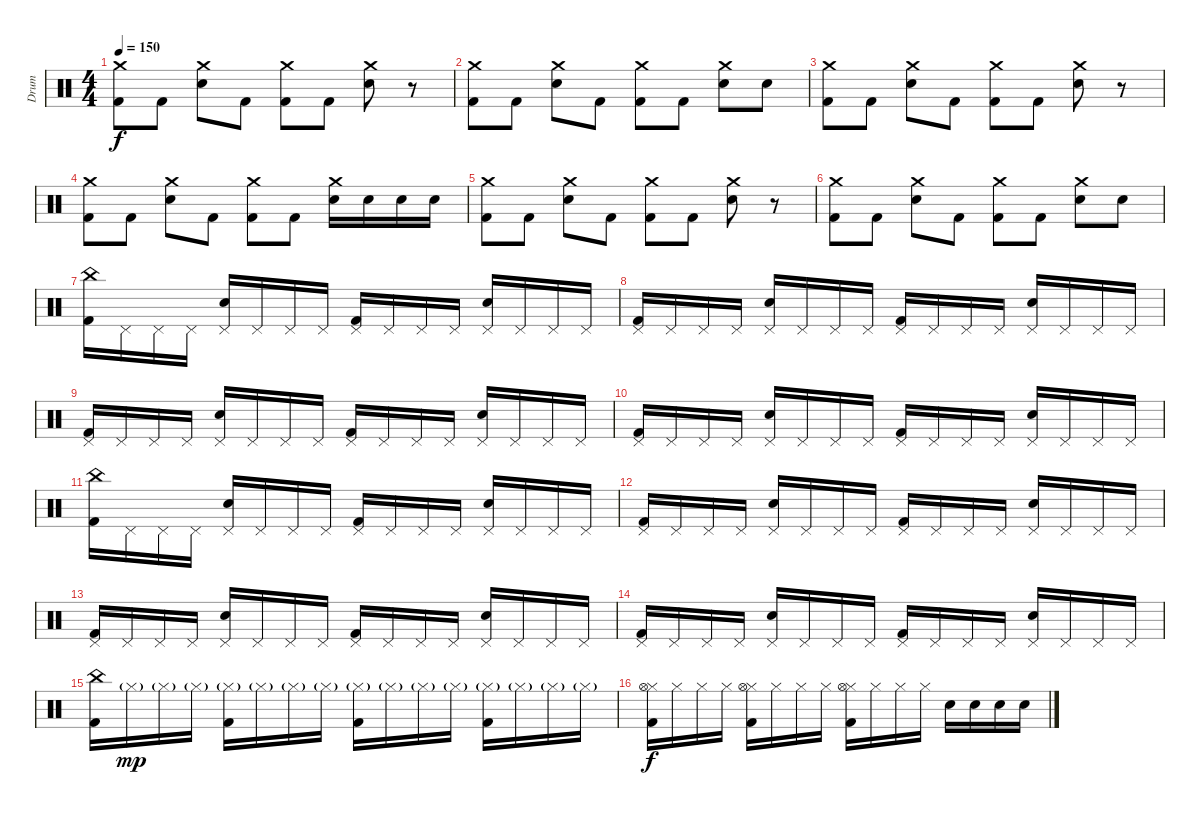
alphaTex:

\track ("Drum" "Drum") {instrument percussion}
\staff {score}
\articulation defaults
\ts (4 4)
\tempo 150
\clef neutral
\ks c
("Crash medium (hit)" "Kick (hit) 2").8{dy f} "Kick (hit) 2".8 ("Crash medium (hit)" "Electric Snare (hit)").8 "Kick (hit) 2".8 ("Crash medium (hit)" "Kick (hit) 2").8 "Kick (hit) 2".8 ("Crash medium (hit)" "Electric Snare (hit)").8 r.8 |
("Crash medium (hit)" "Kick (hit) 2").8 "Kick (hit) 2".8 ("Crash medium (hit)" "Electric Snare (hit)").8 "Kick (hit) 2".8 ("Crash medium (hit)" "Kick (hit) 2").8 "Kick (hit) 2".8 ("Crash medium (hit)" "Electric Snare (hit)").8 "Electric Snare (hit)".8 |
("Crash medium (hit)" "Kick (hit) 2").8 "Kick (hit) 2".8 ("Crash medium (hit)" "Electric Snare (hit)").8 "Kick (hit) 2".8 ("Crash medium (hit)" "Kick (hit) 2").8 "Kick (hit) 2".8 ("Crash medium (hit)" "Electric Snare (hit)").8 r.8 |
("Crash medium (hit)" "Kick (hit) 2").8 "Kick (hit) 2".8 ("Crash medium (hit)" "Electric Snare (hit)").8 "Kick (hit) 2".8 ("Crash medium (hit)" "Kick (hit) 2").8 "Kick (hit) 2".8 ("Crash medium (hit)" "Electric Snare (hit)").16 "Electric Snare (hit)".16 "Electric Snare (hit)".16 "Electric Snare (hit)".16 |
("Crash medium (hit)" "Kick (hit) 2").8 "Kick (hit) 2".8 ("Crash medium (hit)" "Electric Snare (hit)").8 "Kick (hit) 2".8 ("Crash medium (hit)" "Kick (hit) 2").8 "Kick (hit) 2".8 ("Crash medium (hit)" "Electric Snare (hit)").8 r.8 |
("Crash medium (hit)" "Kick (hit) 2").8 "Kick (hit) 2".8 ("Crash medium (hit)" "Electric Snare (hit)").8 "Kick (hit) 2".8 ("Crash medium (hit)" "Kick (hit) 2").8 "Kick (hit) 2".8 ("Crash medium (hit)" "Electric Snare (hit)").8 "Electric Snare (hit)".8 |
("China (hit)" "Kick (hit) 2").16 "Pedal Hi-Hat (hit)".16 "Pedal Hi-Hat (hit)".16 "Pedal Hi-Hat (hit)".16 ("Pedal Hi-Hat (hit)" "Electric Snare (hit)").16 "Pedal Hi-Hat (hit)".16 "Pedal Hi-Hat (hit)".16 "Pedal Hi-Hat (hit)".16 ("Pedal Hi-Hat (hit)" "Kick (hit) 2").16 "Pedal Hi-Hat (hit)".16 "Pedal Hi-Hat (hit)".16 "Pedal Hi-Hat (hit)".16 ("Pedal Hi-Hat (hit)" "Electric Snare (hit)").16 "Pedal Hi-Hat (hit)".16 "Pedal Hi-Hat (hit)".16 "Pedal Hi-Hat (hit)".16 |
("Pedal Hi-Hat (hit)" "Kick (hit) 2").16 "Pedal Hi-Hat (hit)".16 "Pedal Hi-Hat (hit)".16 "Pedal Hi-Hat (hit)".16 ("Pedal Hi-Hat (hit)" "Electric Snare (hit)").16 "Pedal Hi-Hat (hit)".16 "Pedal Hi-Hat (hit)".16 "Pedal Hi-Hat (hit)".16 ("Pedal Hi-Hat (hit)" "Kick (hit) 2").16 "Pedal Hi-Hat (hit)".16 "Pedal Hi-Hat (hit)".16 "Pedal Hi-Hat (hit)".16 ("Pedal Hi-Hat (hit)" "Electric Snare (hit)").16 "Pedal Hi-Hat (hit)".16 "Pedal Hi-Hat (hit)".16 "Pedal Hi-Hat (hit)".16 |
("Pedal Hi-Hat (hit)" "Kick (hit) 2").16 "Pedal Hi-Hat (hit)".16 "Pedal Hi-Hat (hit)".16 "Pedal Hi-Hat (hit)".16 ("Pedal Hi-Hat (hit)" "Electric Snare (hit)").16 "Pedal Hi-Hat (hit)".16 "Pedal Hi-Hat (hit)".16 "Pedal Hi-Hat (hit)".16 ("Pedal Hi-Hat (hit)" "Kick (hit) 2").16 "Pedal Hi-Hat (hit)".16 "Pedal Hi-Hat (hit)".16 "Pedal Hi-Hat (hit)".16 ("Pedal Hi-Hat (hit)" "Electric Snare (hit)").16 "Pedal Hi-Hat (hit)".16 "Pedal Hi-Hat (hit)".16 "Pedal Hi-Hat (hit)".16 |
("Pedal Hi-Hat (hit)" "Kick (hit) 2").16 "Pedal Hi-Hat (hit)".16 "Pedal Hi-Hat (hit)".16 "Pedal Hi-Hat (hit)".16 ("Pedal Hi-Hat (hit)" "Electric Snare (hit)").16 "Pedal Hi-Hat (hit)".16 "Pedal Hi-Hat (hit)".16 "Pedal Hi-Hat (hit)".16 ("Pedal Hi-Hat (hit)" "Kick (hit) 2").16 "Pedal Hi-Hat (hit)".16 "Pedal Hi-Hat (hit)".16 "Pedal Hi-Hat (hit)".16 ("Pedal Hi-Hat (hit)" "Electric Snare (hit)").16 "Pedal Hi-Hat (hit)".16 "Pedal Hi-Hat (hit)".16 "Pedal Hi-Hat (hit)".16 |
("China (hit)" "Kick (hit) 2").16 "Pedal Hi-Hat (hit)".16 "Pedal Hi-Hat (hit)".16 "Pedal Hi-Hat (hit)".16 ("Pedal Hi-Hat (hit)" "Electric Snare (hit)").16 "Pedal Hi-Hat (hit)".16 "Pedal Hi-Hat (hit)".16 "Pedal Hi-Hat (hit)".16 ("Pedal Hi-Hat (hit)" "Kick (hit) 2").16 "Pedal Hi-Hat (hit)".16 "Pedal Hi-Hat (hit)".16 "Pedal Hi-Hat (hit)".16 ("Pedal Hi-Hat (hit)" "Electric Snare (hit)").16 "Pedal Hi-Hat (hit)".16 "Pedal Hi-Hat (hit)".16 "Pedal Hi-Hat (hit)".16 |
("Pedal Hi-Hat (hit)" "Kick (hit) 2").16 "Pedal Hi-Hat (hit)".16 "Pedal Hi-Hat (hit)".16 "Pedal Hi-Hat (hit)".16 ("Pedal Hi-Hat (hit)" "Electric Snare (hit)").16 "Pedal Hi-Hat (hit)".16 "Pedal Hi-Hat (hit)".16 "Pedal Hi-Hat (hit)".16 ("Pedal Hi-Hat (hit)" "Kick (hit) 2").16 "Pedal Hi-Hat (hit)".16 "Pedal Hi-Hat (hit)".16 "Pedal Hi-Hat (hit)".16 ("Pedal Hi-Hat (hit)" "Electric Snare (hit)").16 "Pedal Hi-Hat (hit)".16 "Pedal Hi-Hat (hit)".16 "Pedal Hi-Hat (hit)".16 |
("Pedal Hi-Hat (hit)" "Kick (hit) 2").16 "Pedal Hi-Hat (hit)".16 "Pedal Hi-Hat (hit)".16 "Pedal Hi-Hat (hit)".16 ("Pedal Hi-Hat (hit)" "Electric Snare (hit)").16 "Pedal Hi-Hat (hit)".16 "Pedal Hi-Hat (hit)".16 "Pedal Hi-Hat (hit)".16 ("Pedal Hi-Hat (hit)" "Kick (hit) 2").16 "Pedal Hi-Hat (hit)".16 "Pedal Hi-Hat (hit)".16 "Pedal Hi-Hat (hit)".16 ("Pedal Hi-Hat (hit)" "Electric Snare (hit)").16 "Pedal Hi-Hat (hit)".16 "Pedal Hi-Hat (hit)".16 "Pedal Hi-Hat (hit)".16 |
("Pedal Hi-Hat (hit)" "Kick (hit) 2").16 "Pedal Hi-Hat (hit)".16 "Pedal Hi-Hat (hit)".16 "Pedal Hi-Hat (hit)".16 ("Pedal Hi-Hat (hit)" "Electric Snare (hit)").16 "Pedal Hi-Hat (hit)".16 "Pedal Hi-Hat (hit)".16 "Pedal Hi-Hat (hit)".16 ("Pedal Hi-Hat (hit)" "Kick (hit) 2").16 "Pedal Hi-Hat (hit)".16 "Pedal Hi-Hat (hit)".16 "Pedal Hi-Hat (hit)".16 ("Pedal Hi-Hat (hit)" "Electric Snare (hit)").16 "Pedal Hi-Hat (hit)".16 "Pedal Hi-Hat (hit)".16 "Pedal Hi-Hat (hit)".16 |
("China (hit)" "Kick (hit) 2").16 "Hi-Hat (closed)"{g}.16{dy mp} "Hi-Hat (closed)"{g}.16 "Hi-Hat (closed)"{g}.16 ("Hi-Hat (closed)"{g} "Kick (hit) 2").16 "Hi-Hat (closed)"{g}.16 "Hi-Hat (closed)"{g}.16 "Hi-Hat (closed)"{g}.16 ("Hi-Hat (closed)"{g} "Kick (hit) 2").16 "Hi-Hat (closed)"{g}.16 "Hi-Hat (closed)"{g}.16 "Hi-Hat (closed)"{g}.16 ("Hi-Hat (closed)"{g} "Kick (hit) 2").16 "Hi-Hat (closed)"{g}.16 "Hi-Hat (closed)"{g}.16 "Hi-Hat (closed)"{g}.16 |
("Hi-Hat (closed)" "Hi-Hat (open)" "Kick (hit) 2").16{dy f volume 7} "Hi-Hat (closed)".16 "Hi-Hat (closed)".16{volume 9} "Hi-Hat (closed)".16 ("Hi-Hat (closed)" "Hi-Hat (open)" "Kick (hit) 2").16{volume 9} "Hi-Hat (closed)".16 "Hi-Hat (closed)".16{volume 12} "Hi-Hat (closed)".16 ("Hi-Hat (closed)" "Hi-Hat (open)" "Kick (hit) 2").16 "Hi-Hat (closed)".16{volume 13} "Hi-Hat (closed)".16 "Hi-Hat (closed)".16 "Electric Snare (hit)".16 "Electric Snare (hit)".16 "Electric Snare (hit)".16 "Electric Snare (hit)".16
